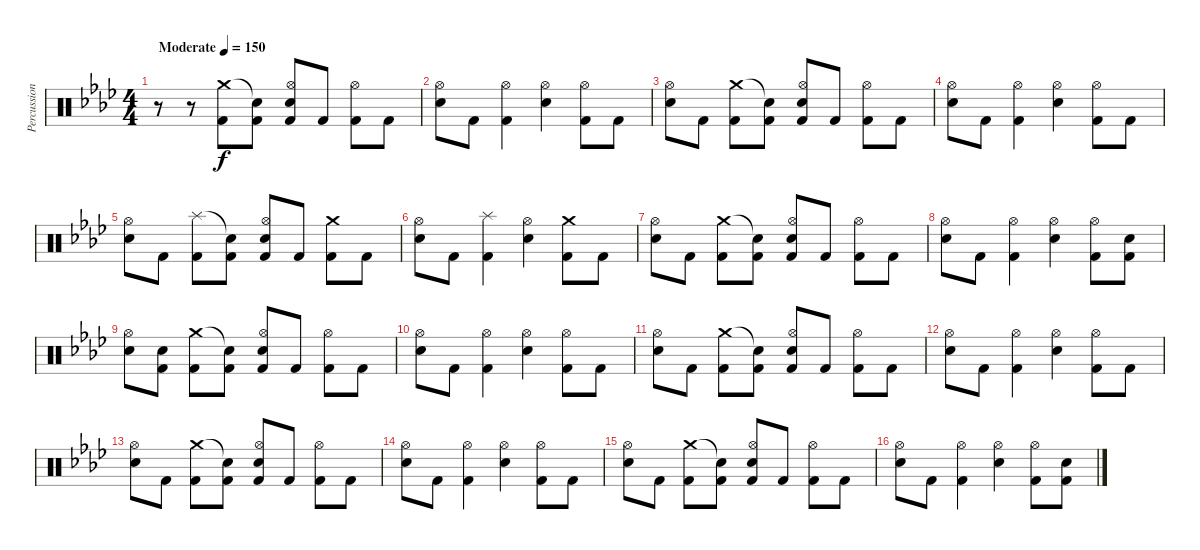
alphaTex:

\track ("Percussion" "Percussion") {instrument percussion}
\staff {score}
\articulation defaults
\ts (4 4)
\tempo (150 "Moderate")
\clef neutral
\ks ab
r.8{dy f} r.8 ("Crash medium (hit)" "Kick (hit) 2").8 ("Snare (hit)"{t} "Kick (hit) 2").8 ("Hi-Hat (open)" "Electric Snare (hit)" "Kick (hit) 2").8 "Kick (hit) 2".8 ("Hi-Hat (open)" "Kick (hit) 2").8 "Kick (hit) 2".8 |
("Hi-Hat (open)" "Electric Snare (hit)").8 "Kick (hit) 2".8 ("Hi-Hat (open)" "Kick (hit) 2").4 ("Hi-Hat (open)" "Electric Snare (hit)").4 ("Hi-Hat (open)" "Kick (hit) 2").8 "Kick (hit) 2".8 |
("Hi-Hat (open)" "Electric Snare (hit)").8 "Kick (hit) 2".8 ("Crash medium (hit)" "Kick (hit) 2").8 ("Snare (hit)"{t} "Kick (hit) 2").8 ("Hi-Hat (open)" "Electric Snare (hit)" "Kick (hit) 2").8 "Kick (hit) 2".8 ("Hi-Hat (open)" "Kick (hit) 2").8 "Kick (hit) 2".8 |
("Hi-Hat (open)" "Electric Snare (hit)").8 "Kick (hit) 2".8 ("Hi-Hat (open)" "Kick (hit) 2").4 ("Hi-Hat (open)" "Electric Snare (hit)").4 ("Hi-Hat (open)" "Kick (hit) 2").8 "Kick (hit) 2".8 |
("Hi-Hat (open)" "Electric Snare (hit)").8 "Kick (hit) 2".8 ("Splash (hit)" "Kick (hit) 2").8 ("Snare (hit)"{t} "Kick (hit) 2").8 ("Hi-Hat (open)" "Electric Snare (hit)" "Kick (hit) 2").8 "Kick (hit) 2".8 ("Crash medium (hit)" "Kick (hit) 2").8 "Kick (hit) 2".8 |
("Hi-Hat (open)" "Electric Snare (hit)").8 "Kick (hit) 2".8 ("Splash (hit)" "Kick (hit) 2").4 ("Hi-Hat (open)" "Electric Snare (hit)").4 ("Crash medium (hit)" "Kick (hit) 2").8 "Kick (hit) 2".8 |
("Hi-Hat (open)" "Electric Snare (hit)").8 "Kick (hit) 2".8 ("Crash medium (hit)" "Kick (hit) 2").8 ("Snare (hit)"{t} "Kick (hit) 2").8 ("Hi-Hat (open)" "Electric Snare (hit)" "Kick (hit) 2").8 "Kick (hit) 2".8 ("Hi-Hat (open)" "Kick (hit) 2").8 "Kick (hit) 2".8 |
("Hi-Hat (open)" "Electric Snare (hit)").8 "Kick (hit) 2".8 ("Hi-Hat (open)" "Kick (hit) 2").4 ("Hi-Hat (open)" "Electric Snare (hit)").4 ("Hi-Hat (open)" "Kick (hit) 2").8 ("Electric Snare (hit)" "Kick (hit) 2").8 |
("Hi-Hat (open)" "Electric Snare (hit)").8 ("Electric Snare (hit)" "Kick (hit) 2").8 ("Crash medium (hit)" "Kick (hit) 2").8 ("Snare (hit)"{t} "Kick (hit) 2").8 ("Hi-Hat (open)" "Electric Snare (hit)" "Kick (hit) 2").8 "Kick (hit) 2".8 ("Hi-Hat (open)" "Kick (hit) 2").8 "Kick (hit) 2".8 |
("Hi-Hat (open)" "Electric Snare (hit)").8 "Kick (hit) 2".8 ("Hi-Hat (open)" "Kick (hit) 2").4 ("Hi-Hat (open)" "Electric Snare (hit)").4 ("Hi-Hat (open)" "Kick (hit) 2").8 "Kick (hit) 2".8 |
("Hi-Hat (open)" "Electric Snare (hit)").8 "Kick (hit) 2".8 ("Crash medium (hit)" "Kick (hit) 2").8 ("Snare (hit)"{t} "Kick (hit) 2").8 ("Hi-Hat (open)" "Electric Snare (hit)" "Kick (hit) 2").8 "Kick (hit) 2".8 ("Hi-Hat (open)" "Kick (hit) 2").8 "Kick (hit) 2".8 |
("Hi-Hat (open)" "Electric Snare (hit)").8 "Kick (hit) 2".8 ("Hi-Hat (open)" "Kick (hit) 2").4 ("Hi-Hat (open)" "Electric Snare (hit)").4 ("Hi-Hat (open)" "Kick (hit) 2").8 "Kick (hit) 2".8 |
("Hi-Hat (open)" "Electric Snare (hit)").8 "Kick (hit) 2".8 ("Crash medium (hit)" "Kick (hit) 2").8 ("Snare (hit)"{t} "Kick (hit) 2").8 ("Hi-Hat (open)" "Electric Snare (hit)" "Kick (hit) 2").8 "Kick (hit) 2".8 ("Hi-Hat (open)" "Kick (hit) 2").8 "Kick (hit) 2".8 |
("Hi-Hat (open)" "Electric Snare (hit)").8 "Kick (hit) 2".8 ("Hi-Hat (open)" "Kick (hit) 2").4 ("Hi-Hat (open)" "Electric Snare (hit)").4 ("Hi-Hat (open)" "Kick (hit) 2").8 "Kick (hit) 2".8 |
("Hi-Hat (open)" "Electric Snare (hit)").8 "Kick (hit) 2".8 ("Crash medium (hit)" "Kick (hit) 2").8 ("Snare (hit)"{t} "Kick (hit) 2").8 ("Hi-Hat (open)" "Electric Snare (hit)" "Kick (hit) 2").8 "Kick (hit) 2".8 ("Hi-Hat (open)" "Kick (hit) 2").8 "Kick (hit) 2".8 |
("Hi-Hat (open)" "Electric Snare (hit)").8 "Kick (hit) 2".8 ("Hi-Hat (open)" "Kick (hit) 2").4 ("Hi-Hat (open)" "Electric Snare (hit)").4 ("Hi-Hat (open)" "Kick (hit) 2").8 ("Electric Snare (hit)" "Kick (hit) 2").8
